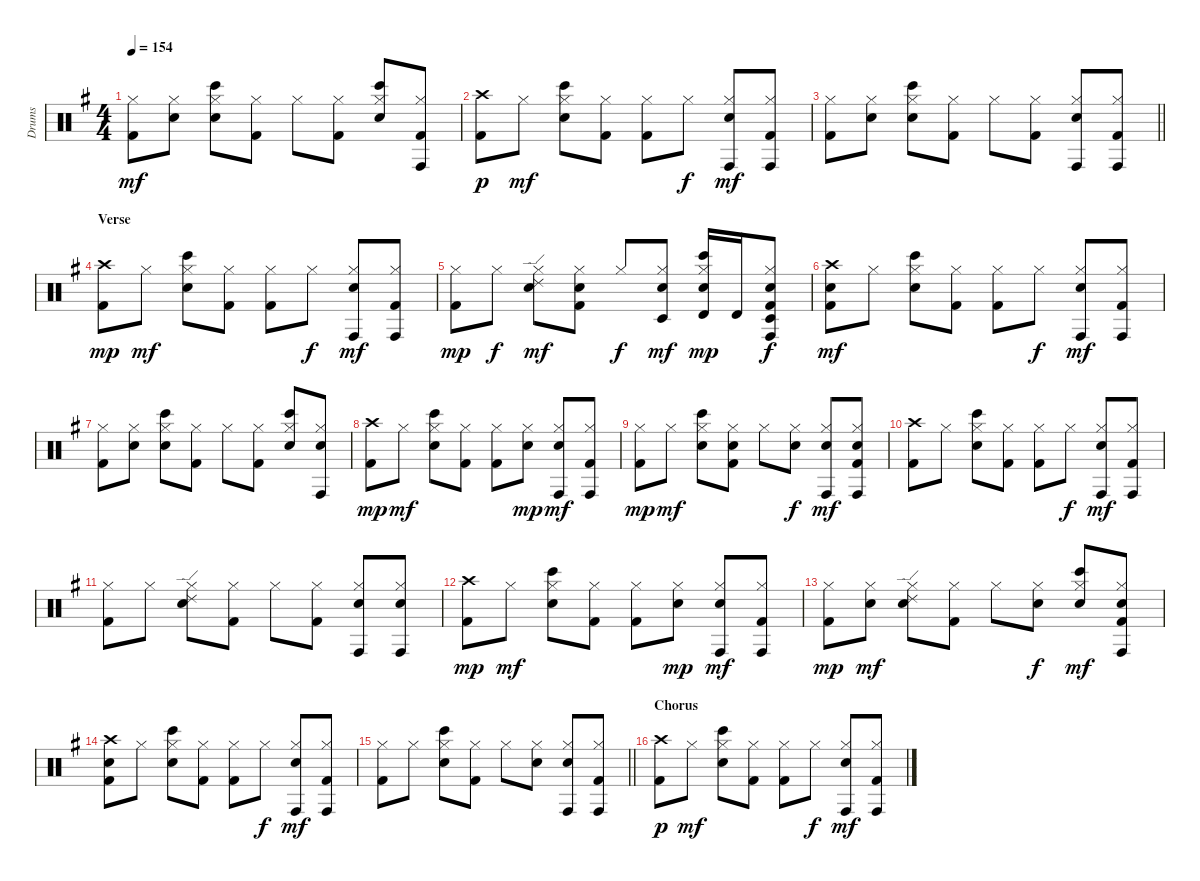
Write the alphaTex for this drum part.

\track ("Drums" "Drums") {instrument percussion}
\staff {score}
\articulation defaults
\ts (4 4)
\tempo 154
\clef neutral
\ks g
("Kick (hit) 2" "Hi-Hat (closed)").8{dy mf} ("Electric Snare (hit)" "Hi-Hat (closed)").8 ("Electric Snare (hit)" "Hi-Hat (closed)" "Bongo High (hit)").8 ("Kick (hit) 2" "Hi-Hat (closed)").8 "Hi-Hat (closed)".8 ("Kick (hit) 2" "Hi-Hat (closed)").8 ("Electric Snare (hit)" "Hi-Hat (closed)" "Bongo High (hit)").8 ("Kick (hit) 2" "Hi-Hat (closed)" "Conga high (hit)").8 |
("Kick (hit) 2" "Crash high (hit)").8{dy p} "Hi-Hat (closed)".8{dy mf} ("Electric Snare (hit)" "Hi-Hat (closed)" "Bongo High (hit)").8 ("Kick (hit) 2" "Hi-Hat (closed)").8 ("Kick (hit) 2" "Hi-Hat (closed)").8 "Hi-Hat (closed)".8{dy f} ("Electric Snare (hit)" "Hi-Hat (closed)" "Conga high (hit)").8{dy mf} ("Kick (hit) 2" "Hi-Hat (closed)" "Conga high (hit)").8 |
\barLineRight lightlight
("Kick (hit) 2" "Hi-Hat (closed)").8 ("Electric Snare (hit)" "Hi-Hat (closed)").8 ("Electric Snare (hit)" "Hi-Hat (closed)" "Bongo High (hit)").8 ("Kick (hit) 2" "Hi-Hat (closed)").8 "Hi-Hat (closed)".8 ("Kick (hit) 2" "Hi-Hat (closed)").8 ("Electric Snare (hit)" "Hi-Hat (closed)" "Conga high (hit)").8 ("Kick (hit) 2" "Hi-Hat (closed)" "Conga high (hit)").8 |
\section ("" "Verse")
("Kick (hit) 2" "Crash high (hit)").8{dy mp} "Hi-Hat (closed)".8{dy mf} ("Electric Snare (hit)" "Hi-Hat (closed)" "Bongo High (hit)").8 ("Kick (hit) 2" "Hi-Hat (closed)").8 ("Kick (hit) 2" "Hi-Hat (closed)").8 "Hi-Hat (closed)".8{dy f} ("Electric Snare (hit)" "Hi-Hat (closed)" "Conga high (hit)").8{dy mf} ("Kick (hit) 2" "Hi-Hat (closed)" "Conga high (hit)").8 |
("Kick (hit) 2" "Hi-Hat (closed)").8{dy mp} "Hi-Hat (closed)".8{dy f} ("Electric Snare (hit)" "Hi-Hat (closed)" "Ride (edge) 2").8{dy mf} ("Kick (hit) 2" "Electric Snare (hit)" "Hi-Hat (closed)").8 "Hi-Hat (closed)".8{dy f} ("Electric Snare (hit)" "Hi-Hat (closed)" "Timbale low (hit)").8{dy mf} ("Electric Snare (hit)" "Hi-Hat (closed)" "Bongo High (hit)" "Timbale high (hit)").16{dy mp} "Timbale high (hit)".16 ("Kick (hit) 2" "Electric Snare (hit)" "Hi-Hat (closed)" "Conga high (hit)" "Timbale low (hit)").8{dy f} |
("Kick (hit) 2" "Electric Snare (hit)" "Crash high (hit)").8{dy mf} "Hi-Hat (closed)".8 ("Electric Snare (hit)" "Hi-Hat (closed)" "Bongo High (hit)").8 ("Kick (hit) 2" "Hi-Hat (closed)").8 ("Kick (hit) 2" "Hi-Hat (closed)").8 "Hi-Hat (closed)".8{dy f} ("Electric Snare (hit)" "Hi-Hat (closed)" "Conga high (hit)").8{dy mf} ("Kick (hit) 2" "Hi-Hat (closed)" "Conga high (hit)").8 |
("Kick (hit) 2" "Hi-Hat (closed)").8 ("Electric Snare (hit)" "Hi-Hat (closed)").8 ("Electric Snare (hit)" "Hi-Hat (closed)" "Bongo High (hit)").8 ("Kick (hit) 2" "Hi-Hat (closed)").8 "Hi-Hat (closed)".8 ("Kick (hit) 2" "Hi-Hat (closed)").8 ("Electric Snare (hit)" "Hi-Hat (closed)" "Bongo High (hit)").8 ("Electric Snare (hit)" "Hi-Hat (closed)" "Conga high (hit)").8 |
("Kick (hit) 2" "Crash high (hit)").8{dy mp} "Hi-Hat (closed)".8{dy mf} ("Electric Snare (hit)" "Hi-Hat (closed)" "Bongo High (hit)").8 ("Kick (hit) 2" "Hi-Hat (closed)").8 ("Kick (hit) 2" "Hi-Hat (closed)").8 ("Electric Snare (hit)" "Hi-Hat (closed)").8{dy mp} ("Electric Snare (hit)" "Hi-Hat (closed)" "Conga high (hit)").8{dy mf} ("Kick (hit) 2" "Hi-Hat (closed)" "Conga high (hit)").8 |
("Kick (hit) 2" "Hi-Hat (closed)").8{dy mp} "Hi-Hat (closed)".8{dy mf} ("Electric Snare (hit)" "Hi-Hat (closed)" "Bongo High (hit)").8 ("Kick (hit) 2" "Electric Snare (hit)" "Hi-Hat (closed)").8 "Hi-Hat (closed)".8 ("Electric Snare (hit)" "Hi-Hat (closed)").8{dy f} ("Electric Snare (hit)" "Hi-Hat (closed)" "Conga high (hit)").8{dy mf} ("Kick (hit) 2" "Electric Snare (hit)" "Hi-Hat (closed)" "Conga high (hit)").8 |
("Kick (hit) 2" "Crash high (hit)").8 "Hi-Hat (closed)".8 ("Electric Snare (hit)" "Hi-Hat (closed)" "Bongo High (hit)").8 ("Kick (hit) 2" "Hi-Hat (closed)").8 ("Kick (hit) 2" "Hi-Hat (closed)").8 "Hi-Hat (closed)".8{dy f} ("Electric Snare (hit)" "Hi-Hat (closed)" "Conga high (hit)").8{dy mf} ("Kick (hit) 2" "Hi-Hat (closed)" "Conga high (hit)").8 |
("Kick (hit) 2" "Hi-Hat (closed)").8 "Hi-Hat (closed)".8 ("Electric Snare (hit)" "Hi-Hat (closed)" "Ride (edge) 2").8 ("Kick (hit) 2" "Hi-Hat (closed)").8 "Hi-Hat (closed)".8 ("Kick (hit) 2" "Hi-Hat (closed)").8 ("Electric Snare (hit)" "Hi-Hat (closed)" "Conga high (hit)").8 ("Electric Snare (hit)" "Hi-Hat (closed)" "Conga high (hit)").8 |
("Kick (hit) 2" "Crash high (hit)").8{dy mp} "Hi-Hat (closed)".8{dy mf} ("Electric Snare (hit)" "Hi-Hat (closed)" "Bongo High (hit)").8 ("Kick (hit) 2" "Hi-Hat (closed)").8 ("Kick (hit) 2" "Hi-Hat (closed)").8 ("Electric Snare (hit)" "Hi-Hat (closed)").8{dy mp} ("Electric Snare (hit)" "Hi-Hat (closed)" "Conga high (hit)").8{dy mf} ("Kick (hit) 2" "Hi-Hat (closed)" "Conga high (hit)").8 |
("Kick (hit) 2" "Hi-Hat (closed)").8{dy mp} ("Electric Snare (hit)" "Hi-Hat (closed)").8{dy mf} ("Electric Snare (hit)" "Hi-Hat (closed)" "Ride (edge) 2").8 ("Kick (hit) 2" "Hi-Hat (closed)").8 "Hi-Hat (closed)".8 ("Electric Snare (hit)" "Hi-Hat (closed)").8{dy f} ("Electric Snare (hit)" "Hi-Hat (closed)" "Bongo High (hit)").8{dy mf} ("Kick (hit) 2" "Electric Snare (hit)" "Hi-Hat (closed)" "Conga high (hit)").8 |
("Kick (hit) 2" "Electric Snare (hit)" "Crash high (hit)").8 "Hi-Hat (closed)".8 ("Electric Snare (hit)" "Hi-Hat (closed)" "Bongo High (hit)").8 ("Kick (hit) 2" "Hi-Hat (closed)").8 ("Kick (hit) 2" "Hi-Hat (closed)").8 "Hi-Hat (closed)".8{dy f} ("Electric Snare (hit)" "Hi-Hat (closed)" "Conga high (hit)").8{dy mf} ("Kick (hit) 2" "Hi-Hat (closed)" "Conga high (hit)").8 |
\barLineRight lightlight
("Kick (hit) 2" "Hi-Hat (closed)").8 "Hi-Hat (closed)".8 ("Electric Snare (hit)" "Hi-Hat (closed)" "Bongo High (hit)").8 ("Kick (hit) 2" "Hi-Hat (closed)").8 "Hi-Hat (closed)".8 ("Electric Snare (hit)" "Hi-Hat (closed)").8 ("Electric Snare (hit)" "Hi-Hat (closed)" "Conga high (hit)").8 ("Kick (hit) 2" "Hi-Hat (closed)" "Conga high (hit)").8 |
\section ("" "Chorus")
("Kick (hit) 2" "Crash high (hit)").8{dy p} "Hi-Hat (closed)".8{dy mf} ("Electric Snare (hit)" "Hi-Hat (closed)" "Bongo High (hit)").8 ("Kick (hit) 2" "Hi-Hat (closed)").8 ("Kick (hit) 2" "Hi-Hat (closed)").8 "Hi-Hat (closed)".8{dy f} ("Electric Snare (hit)" "Hi-Hat (closed)" "Conga high (hit)").8{dy mf} ("Kick (hit) 2" "Hi-Hat (closed)" "Conga high (hit)").8
